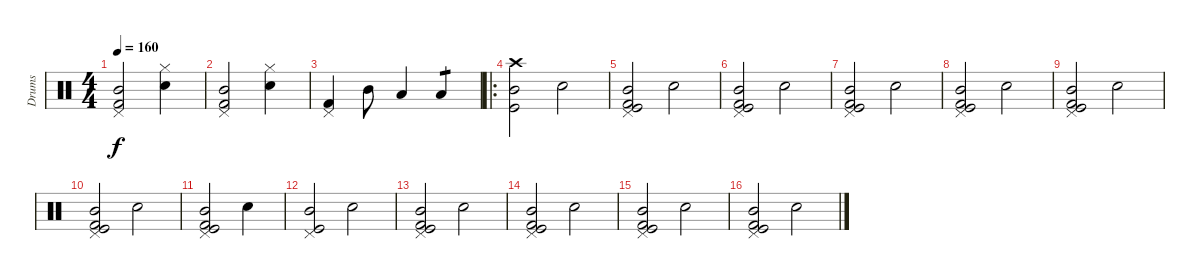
\track ("Drums" "Drums") {instrument percussion}
\staff {score}
\articulation defaults
\ts (4 4)
\tempo 160
\clef neutral
\ks c
("Mid Tom (hit)" "Kick (hit) 2" "Pedal Hi-Hat (hit)").2{dy f} ("Electric Snare (hit)" "Hi-Hat (closed)").4 |
("Mid Tom (hit)" "Kick (hit) 2" "Pedal Hi-Hat (hit)").2 ("Electric Snare (hit)" "Hi-Hat (closed)").4 |
("Kick (hit) 2" "Pedal Hi-Hat (hit)").4 "Mid Tom (hit)".8 "Low Tom (hit)".4 "Low Tom (hit)".4{tp 1} |
\ro
("Kick (hit)" "Crash high (hit)" "Mid Tom (hit)").2 "Electric Snare (hit)".2 |
("Kick (hit)" "Kick (hit) 2" "Pedal Hi-Hat (hit)" "Mid Tom (hit)").2 "Electric Snare (hit)".2 |
("Kick (hit)" "Kick (hit) 2" "Pedal Hi-Hat (hit)" "Mid Tom (hit)").2 "Electric Snare (hit)".2 |
("Kick (hit)" "Kick (hit) 2" "Pedal Hi-Hat (hit)" "Mid Tom (hit)").2 "Electric Snare (hit)".2 |
("Kick (hit)" "Kick (hit) 2" "Pedal Hi-Hat (hit)" "Mid Tom (hit)").2 "Electric Snare (hit)".2 |
("Kick (hit)" "Kick (hit) 2" "Pedal Hi-Hat (hit)" "Mid Tom (hit)").2 "Electric Snare (hit)".2 |
("Kick (hit)" "Kick (hit) 2" "Pedal Hi-Hat (hit)" "Mid Tom (hit)").2 "Electric Snare (hit)".2 |
("Kick (hit)" "Kick (hit) 2" "Pedal Hi-Hat (hit)" "Mid Tom (hit)").2 "Electric Snare (hit)".4 |
("Kick (hit)" "Pedal Hi-Hat (hit)" "Mid Tom (hit)").2 "Electric Snare (hit)".2 |
("Kick (hit)" "Kick (hit) 2" "Pedal Hi-Hat (hit)" "Mid Tom (hit)").2 "Electric Snare (hit)".2 |
("Kick (hit)" "Kick (hit) 2" "Pedal Hi-Hat (hit)" "Mid Tom (hit)").2 "Electric Snare (hit)".2 |
("Kick (hit)" "Kick (hit) 2" "Pedal Hi-Hat (hit)" "Mid Tom (hit)").2 "Electric Snare (hit)".2 |
("Kick (hit)" "Kick (hit) 2" "Pedal Hi-Hat (hit)" "Mid Tom (hit)").2 "Electric Snare (hit)".2
